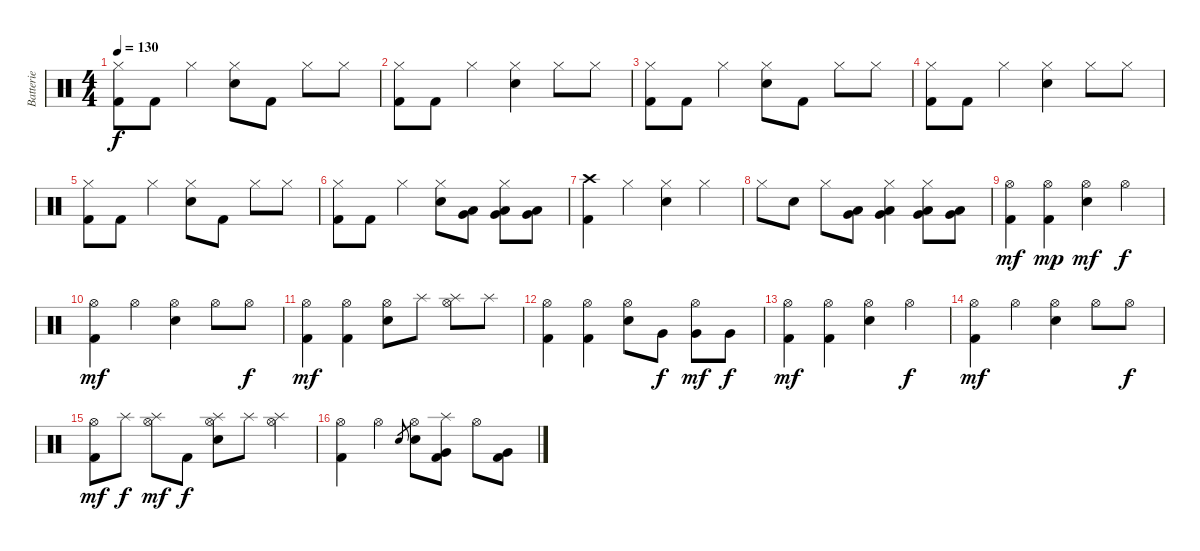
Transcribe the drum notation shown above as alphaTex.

\track ("Batterie" "Batterie") {instrument percussion}
\staff {score}
\articulation defaults
\ts (4 4)
\tempo 130
\clef neutral
\ks c
("Hi-Hat (closed)" "Kick (hit) 2").8{dy f} "Kick (hit) 2".8 "Hi-Hat (closed)".4 ("Hi-Hat (closed)" "Electric Snare (hit)").8 "Kick (hit) 2".8 "Hi-Hat (closed)".8 "Hi-Hat (closed)".8 |
("Hi-Hat (closed)" "Kick (hit) 2").8 "Kick (hit) 2".8 "Hi-Hat (closed)".4 ("Hi-Hat (closed)" "Electric Snare (hit)").4 "Hi-Hat (closed)".8 "Hi-Hat (closed)".8 |
("Hi-Hat (closed)" "Kick (hit) 2").8 "Kick (hit) 2".8 "Hi-Hat (closed)".4 ("Hi-Hat (closed)" "Electric Snare (hit)").8 "Kick (hit) 2".8 "Hi-Hat (closed)".8 "Hi-Hat (closed)".8 |
("Hi-Hat (closed)" "Kick (hit) 2").8 "Kick (hit) 2".8 "Hi-Hat (closed)".4 ("Hi-Hat (closed)" "Electric Snare (hit)").4 "Hi-Hat (closed)".8 "Hi-Hat (closed)".8 |
("Hi-Hat (closed)" "Kick (hit) 2").8 "Kick (hit) 2".8 "Hi-Hat (closed)".4 ("Hi-Hat (closed)" "Electric Snare (hit)").8 "Kick (hit) 2".8 "Hi-Hat (closed)".8 "Hi-Hat (closed)".8 |
("Hi-Hat (closed)" "Kick (hit) 2").8 "Kick (hit) 2".8 "Hi-Hat (closed)".4 ("Hi-Hat (closed)" "Electric Snare (hit)").8 ("Very Low Tom (hit)" "Low Tom (hit)").8 ("Hi-Hat (closed)" "Very Low Tom (hit)" "Low Tom (hit)").8 ("Very Low Tom (hit)" "Low Tom (hit)").8 |
("Crash high (hit)" "Kick (hit) 2").4 "Hi-Hat (closed)".4 ("Hi-Hat (closed)" "Electric Snare (hit)").4 "Hi-Hat (closed)".4 |
"Hi-Hat (closed)".8 "Electric Snare (hit)".8 "Hi-Hat (closed)".8 ("Low Tom (hit)" "Very Low Tom (hit)").8 ("Hi-Hat (closed)" "Low Tom (hit)" "Very Low Tom (hit)").4 ("Hi-Hat (closed)" "Low Tom (hit)" "Very Low Tom (hit)").8 ("Low Tom (hit)" "Very Low Tom (hit)").8 |
("Hi-Hat (open)" "Kick (hit) 2").4{dy mf} ("Hi-Hat (open)" "Kick (hit) 2").4{dy mp} ("Hi-Hat (open)" "Electric Snare (hit)").4{dy mf} "Hi-Hat (open)".4{dy f} |
("Hi-Hat (open)" "Kick (hit) 2").4{dy mf} "Hi-Hat (open)".4 ("Hi-Hat (open)" "Electric Snare (hit)").4 "Hi-Hat (open)".8 "Hi-Hat (open)".8{dy f} |
("Hi-Hat (open)" "Kick (hit) 2").4{dy mf} ("Hi-Hat (open)" "Kick (hit) 2").4 ("Hi-Hat (open)" "Electric Snare (hit)").8 "Splash (hit)".8 ("Hi-Hat (open)" "Splash (hit)").8 "Splash (hit)".8 |
("Hi-Hat (open)" "Kick (hit) 2").4 ("Hi-Hat (open)" "Kick (hit) 2").4 ("Hi-Hat (open)" "Electric Snare (hit)").8 "Very Low Tom (hit)".8{dy f} ("Hi-Hat (open)" "Very Low Tom (hit)").8{dy mf} "Very Low Tom (hit)".8{dy f} |
("Hi-Hat (open)" "Kick (hit) 2").4{dy mf} ("Hi-Hat (open)" "Kick (hit) 2").4 ("Hi-Hat (open)" "Electric Snare (hit)").4 "Hi-Hat (open)".4{dy f} |
("Hi-Hat (open)" "Kick (hit) 2").4{dy mf} "Hi-Hat (open)".4 ("Hi-Hat (open)" "Electric Snare (hit)").4 "Hi-Hat (open)".8 "Hi-Hat (open)".8{dy f} |
("Hi-Hat (open)" "Kick (hit) 2").8{dy mf} "Splash (hit)".8{dy f} ("Hi-Hat (open)" "Splash (hit)").8{dy mf} "Kick (hit) 2".8{dy f} ("Hi-Hat (open)" "Splash (hit)" "Electric Snare (hit)").8 "Splash (hit)".8 ("Hi-Hat (open)" "Splash (hit)").4 |
("Hi-Hat (open)" "Kick (hit) 2").4 "Hi-Hat (open)".4 "Electric Snare (hit)".8{gr} ("Hi-Hat (open)" "Electric Snare (hit)").8 ("Splash (hit)" "Very Low Tom (hit)" "Kick (hit) 2").8 "Hi-Hat (open)".8 ("Very Low Tom (hit)" "Kick (hit) 2").8
